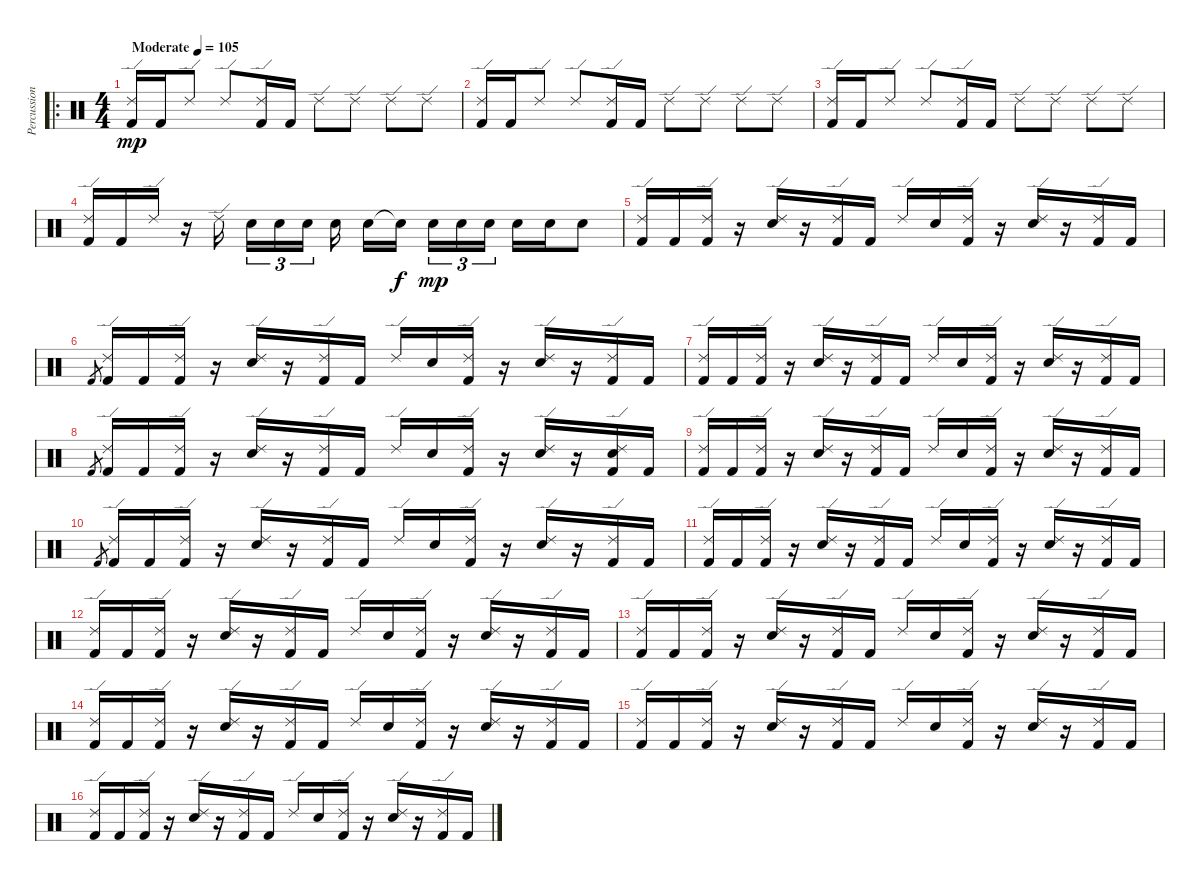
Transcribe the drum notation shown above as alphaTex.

\track ("Percussioni" "Percussion") {instrument percussion}
\staff {score}
\articulation defaults
\ro
\ts (4 4)
\tempo (105 "Moderate")
\clef neutral
\ks c
("Ride (edge) 2" "Kick (hit) 2").16{dy mp} "Kick (hit) 2".16 "Ride (edge) 2".8 "Ride (edge) 2".8 ("Ride (edge) 2" "Kick (hit) 2").16 "Kick (hit) 2".16 "Ride (edge) 2".8 "Ride (edge) 2".8 "Ride (edge) 2".8 "Ride (edge) 2".8 |
("Ride (edge) 2" "Kick (hit) 2").16 "Kick (hit) 2".16 "Ride (edge) 2".8 "Ride (edge) 2".8 ("Ride (edge) 2" "Kick (hit) 2").16 "Kick (hit) 2".16 "Ride (edge) 2".8 "Ride (edge) 2".8 "Ride (edge) 2".8 "Ride (edge) 2".8 |
("Ride (edge) 2" "Kick (hit) 2").16 "Kick (hit) 2".16 "Ride (edge) 2".8 "Ride (edge) 2".8 ("Ride (edge) 2" "Kick (hit) 2").16 "Kick (hit) 2".16 "Ride (edge) 2".8 "Ride (edge) 2".8 "Ride (edge) 2".8 "Ride (edge) 2".8 |
("Ride (edge) 2" "Kick (hit) 2").16 "Kick (hit) 2".16 "Ride (edge) 2".16 r.16 "Ride (edge) 2".16{beam splitsecondary} "Electric Snare (hit)".16{tu (3 2)} "Electric Snare (hit)".16{tu (3 2)} "Electric Snare (hit)".16{tu (3 2) beam splitsecondary} "Electric Snare (hit)".16 "Electric Snare (hit)".16 "Electric Snare (hit)"{t}.16{dy f beam splitsecondary} "Electric Snare (hit)".16{tu (3 2) dy mp} "Electric Snare (hit)".16{tu (3 2)} "Electric Snare (hit)".16{tu (3 2)} "Electric Snare (hit)".16 "Electric Snare (hit)".16 "Electric Snare (hit)".8 |
("Ride (edge) 2" "Kick (hit) 2").16 "Kick (hit) 2".16 ("Ride (edge) 2" "Kick (hit) 2").16 r.16 ("Ride (edge) 2" "Electric Snare (hit)").16 r.16 ("Ride (edge) 2" "Kick (hit) 2").16 "Kick (hit) 2".16 "Ride (edge) 2".16 "Electric Snare (hit)".16 ("Ride (edge) 2" "Kick (hit) 2").16 r.16 ("Ride (edge) 2" "Electric Snare (hit)").16 r.16 ("Ride (edge) 2" "Kick (hit) 2").16 "Kick (hit) 2".16 |
"Kick (hit) 2".8{gr} ("Ride (edge) 2" "Kick (hit) 2").16 "Kick (hit) 2".16 ("Ride (edge) 2" "Kick (hit) 2").16 r.16 ("Ride (edge) 2" "Electric Snare (hit)").16 r.16 ("Ride (edge) 2" "Kick (hit) 2").16 "Kick (hit) 2".16 "Ride (edge) 2".16 "Electric Snare (hit)".16 ("Ride (edge) 2" "Kick (hit) 2").16 r.16 ("Ride (edge) 2" "Electric Snare (hit)").16 r.16 ("Ride (edge) 2" "Kick (hit) 2").16 "Kick (hit) 2".16 |
("Ride (edge) 2" "Kick (hit) 2").16 "Kick (hit) 2".16 ("Ride (edge) 2" "Kick (hit) 2").16 r.16 ("Ride (edge) 2" "Electric Snare (hit)").16 r.16 ("Ride (edge) 2" "Kick (hit) 2").16 "Kick (hit) 2".16 "Ride (edge) 2".16 "Electric Snare (hit)".16 ("Ride (edge) 2" "Kick (hit) 2").16 r.16 ("Ride (edge) 2" "Electric Snare (hit)").16 r.16 ("Ride (edge) 2" "Kick (hit) 2").16 "Kick (hit) 2".16 |
"Kick (hit) 2".8{gr} ("Ride (edge) 2" "Kick (hit) 2").16 "Kick (hit) 2".16 ("Ride (edge) 2" "Kick (hit) 2").16 r.16 ("Ride (edge) 2" "Electric Snare (hit)").16 r.16 ("Ride (edge) 2" "Kick (hit) 2").16 "Kick (hit) 2".16 "Ride (edge) 2".16 "Electric Snare (hit)".16 ("Ride (edge) 2" "Kick (hit) 2").16 r.16 ("Ride (edge) 2" "Electric Snare (hit)").16 r.16 ("Ride (edge) 2" "Electric Snare (hit)" "Kick (hit) 2").16 "Kick (hit) 2".16 |
("Ride (edge) 2" "Kick (hit) 2").16 "Kick (hit) 2".16 ("Ride (edge) 2" "Kick (hit) 2").16 r.16 ("Ride (edge) 2" "Electric Snare (hit)").16 r.16 ("Ride (edge) 2" "Kick (hit) 2").16 "Kick (hit) 2".16 "Ride (edge) 2".16 "Electric Snare (hit)".16 ("Ride (edge) 2" "Kick (hit) 2").16 r.16 ("Ride (edge) 2" "Electric Snare (hit)").16 r.16 ("Ride (edge) 2" "Kick (hit) 2").16 "Kick (hit) 2".16 |
"Kick (hit) 2".8{gr} ("Ride (edge) 2" "Kick (hit) 2").16 "Kick (hit) 2".16 ("Ride (edge) 2" "Kick (hit) 2").16 r.16 ("Ride (edge) 2" "Electric Snare (hit)").16 r.16 ("Ride (edge) 2" "Kick (hit) 2").16 "Kick (hit) 2".16 "Ride (edge) 2".16 "Electric Snare (hit)".16 ("Ride (edge) 2" "Kick (hit) 2").16 r.16 ("Ride (edge) 2" "Electric Snare (hit)").16 r.16 ("Ride (edge) 2" "Kick (hit) 2").16 "Kick (hit) 2".16 |
("Ride (edge) 2" "Kick (hit) 2").16 "Kick (hit) 2".16 ("Ride (edge) 2" "Kick (hit) 2").16 r.16 ("Ride (edge) 2" "Electric Snare (hit)").16 r.16 ("Ride (edge) 2" "Kick (hit) 2").16 "Kick (hit) 2".16 "Ride (edge) 2".16 "Electric Snare (hit)".16 ("Ride (edge) 2" "Kick (hit) 2").16 r.16 ("Ride (edge) 2" "Electric Snare (hit)").16 r.16 ("Ride (edge) 2" "Kick (hit) 2").16 "Kick (hit) 2".16 |
("Ride (edge) 2" "Kick (hit) 2").16 "Kick (hit) 2".16 ("Ride (edge) 2" "Kick (hit) 2").16 r.16 ("Ride (edge) 2" "Electric Snare (hit)").16 r.16 ("Ride (edge) 2" "Kick (hit) 2").16 "Kick (hit) 2".16 "Ride (edge) 2".16 "Electric Snare (hit)".16 ("Ride (edge) 2" "Kick (hit) 2").16 r.16 ("Ride (edge) 2" "Electric Snare (hit)").16 r.16 ("Ride (edge) 2" "Kick (hit) 2").16 "Kick (hit) 2".16 |
("Ride (edge) 2" "Kick (hit) 2").16 "Kick (hit) 2".16 ("Ride (edge) 2" "Kick (hit) 2").16 r.16 ("Ride (edge) 2" "Electric Snare (hit)").16 r.16 ("Ride (edge) 2" "Kick (hit) 2").16 "Kick (hit) 2".16 "Ride (edge) 2".16 "Electric Snare (hit)".16 ("Ride (edge) 2" "Kick (hit) 2").16 r.16 ("Ride (edge) 2" "Electric Snare (hit)").16 r.16 ("Ride (edge) 2" "Kick (hit) 2").16 "Kick (hit) 2".16 |
("Ride (edge) 2" "Kick (hit) 2").16 "Kick (hit) 2".16 ("Ride (edge) 2" "Kick (hit) 2").16 r.16 ("Ride (edge) 2" "Electric Snare (hit)").16 r.16 ("Ride (edge) 2" "Kick (hit) 2").16 "Kick (hit) 2".16 "Ride (edge) 2".16 "Electric Snare (hit)".16 ("Ride (edge) 2" "Kick (hit) 2").16 r.16 ("Ride (edge) 2" "Electric Snare (hit)").16 r.16 ("Ride (edge) 2" "Kick (hit) 2").16 "Kick (hit) 2".16 |
("Ride (edge) 2" "Kick (hit) 2").16 "Kick (hit) 2".16 ("Ride (edge) 2" "Kick (hit) 2").16 r.16 ("Ride (edge) 2" "Electric Snare (hit)").16 r.16 ("Ride (edge) 2" "Kick (hit) 2").16 "Kick (hit) 2".16 "Ride (edge) 2".16 "Electric Snare (hit)".16 ("Ride (edge) 2" "Kick (hit) 2").16 r.16 ("Ride (edge) 2" "Electric Snare (hit)").16 r.16 ("Ride (edge) 2" "Kick (hit) 2").16 "Kick (hit) 2".16 |
("Ride (edge) 2" "Kick (hit) 2").16 "Kick (hit) 2".16 ("Ride (edge) 2" "Kick (hit) 2").16 r.16 ("Ride (edge) 2" "Electric Snare (hit)").16 r.16 ("Ride (edge) 2" "Kick (hit) 2").16 "Kick (hit) 2".16 "Ride (edge) 2".16 "Electric Snare (hit)".16 ("Ride (edge) 2" "Kick (hit) 2").16 r.16 ("Ride (edge) 2" "Electric Snare (hit)").16 r.16 ("Ride (edge) 2" "Kick (hit) 2").16 "Kick (hit) 2".16
